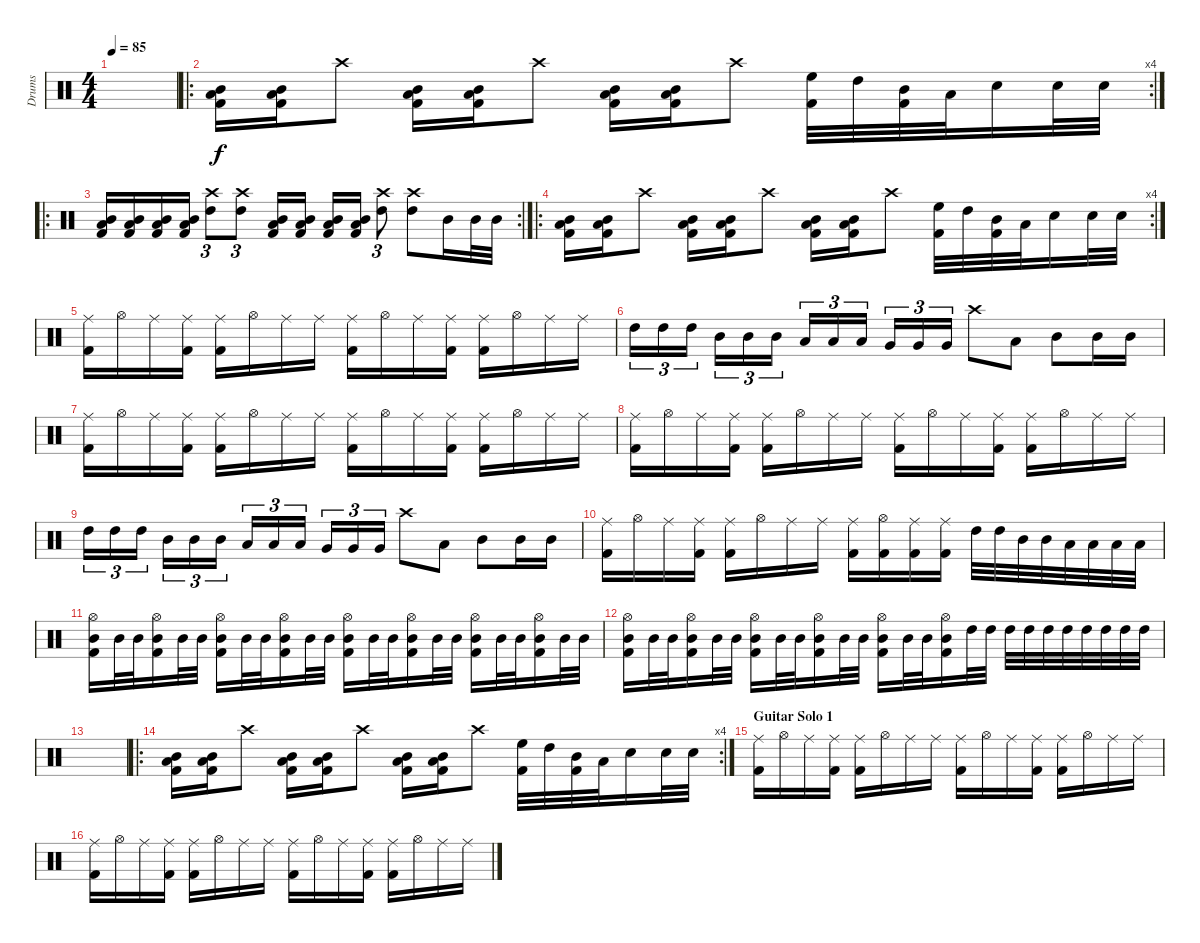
\track ("Drums" "Drums") {instrument percussion}
\staff {score}
\articulation defaults
\ts (4 4)
\tempo 85
\clef neutral
\ks c
|
\ro
\rc 4
("Low Tom (hit)" "Mid Tom (hit)" "Kick (hit) 2").16 ("Low Tom (hit)" "Mid Tom (hit)" "Kick (hit) 2").16 "Crash high (hit)".8 ("Low Tom (hit)" "Mid Tom (hit)" "Kick (hit) 2").16 ("Low Tom (hit)" "Mid Tom (hit)" "Kick (hit) 2").16 "Crash high (hit)".8 ("Low Tom (hit)" "Mid Tom (hit)" "Kick (hit) 2").16 ("Low Tom (hit)" "Mid Tom (hit)" "Kick (hit) 2").16 "Crash high (hit)".8 ("High Floor Tom (hit)" "Kick (hit) 2").32 "High Tom (hit)".32 ("Mid Tom (hit)" "Kick (hit) 2").32 "Low Tom (hit)".32 "Electric Snare (hit)".16 "Snare (hit) 2".32 "Snare (hit) 2".32 |
\ro
\rc 2
("Low Tom (hit)" "Mid Tom (hit)" "Kick (hit) 2").16 ("Low Tom (hit)" "Mid Tom (hit)" "Kick (hit) 2").16 ("Low Tom (hit)" "Mid Tom (hit)" "Kick (hit) 2").16 ("Low Tom (hit)" "Mid Tom (hit)" "Kick (hit) 2").16 ("Crash high (hit)" "High Tom (hit)").8{tu (3 2)} ("Crash high (hit)" "High Tom (hit)").8{tu (3 2)} ("Low Tom (hit)" "Mid Tom (hit)" "Kick (hit) 2").16 ("Low Tom (hit)" "Mid Tom (hit)" "Kick (hit) 2").16 ("Low Tom (hit)" "Mid Tom (hit)" "Kick (hit) 2").16 ("Low Tom (hit)" "Mid Tom (hit)" "Kick (hit) 2").16 ("Crash high (hit)" "High Tom (hit)").8{tu (3 2)} ("Crash high (hit)" "High Tom (hit)").8 "Mid Tom (hit)".16 "Mid Tom (hit)".32 "Mid Tom (hit)".32 |
\ro
\rc 4
("Low Tom (hit)" "Mid Tom (hit)" "Kick (hit) 2").16 ("Low Tom (hit)" "Mid Tom (hit)" "Kick (hit) 2").16 "Crash high (hit)".8 ("Low Tom (hit)" "Mid Tom (hit)" "Kick (hit) 2").16 ("Low Tom (hit)" "Mid Tom (hit)" "Kick (hit) 2").16 "Crash high (hit)".8 ("Low Tom (hit)" "Mid Tom (hit)" "Kick (hit) 2").16 ("Low Tom (hit)" "Mid Tom (hit)" "Kick (hit) 2").16 "Crash high (hit)".8 ("High Floor Tom (hit)" "Kick (hit) 2").32 "High Tom (hit)".32 ("Mid Tom (hit)" "Kick (hit) 2").32 "Low Tom (hit)".32 "Electric Snare (hit)".16 "Snare (hit) 2".32 "Snare (hit) 2".32 |
("Ride (middle)" "Kick (hit) 2").16 "Hi-Hat (open)".16 "Ride (middle)".16 ("Ride (middle)" "Kick (hit) 2").16 ("Ride (middle)" "Kick (hit) 2").16 "Hi-Hat (open)".16 "Ride (middle)".16 "Ride (middle)".16 ("Ride (middle)" "Kick (hit) 2").16 "Hi-Hat (open)".16 "Ride (middle)".16 ("Ride (middle)" "Kick (hit) 2").16 ("Ride (middle)" "Kick (hit) 2").16 "Hi-Hat (open)".16 "Ride (middle)".16 "Ride (middle)".16 |
"High Tom (hit)".16{tu (3 2)} "High Tom (hit)".16{tu (3 2)} "High Tom (hit)".16{tu (3 2)} "Mid Tom (hit)".16{tu (3 2)} "Mid Tom (hit)".16{tu (3 2)} "Mid Tom (hit)".16{tu (3 2)} "Low Tom (hit)".16{tu (3 2)} "Low Tom (hit)".16{tu (3 2)} "Low Tom (hit)".16{tu (3 2)} "Very Low Tom (hit)".16{tu (3 2)} "Very Low Tom (hit)".16{tu (3 2)} "Very Low Tom (hit)".16{tu (3 2)} "Crash high (hit)".8 "Low Tom (hit)".8 "Mid Tom (hit)".8 "Mid Tom (hit)".16 "Mid Tom (hit)".16 |
("Ride (middle)" "Kick (hit) 2").16 "Hi-Hat (open)".16 "Ride (middle)".16 ("Ride (middle)" "Kick (hit) 2").16 ("Ride (middle)" "Kick (hit) 2").16 "Hi-Hat (open)".16 "Ride (middle)".16 "Ride (middle)".16 ("Ride (middle)" "Kick (hit) 2").16 "Hi-Hat (open)".16 "Ride (middle)".16 ("Ride (middle)" "Kick (hit) 2").16 ("Ride (middle)" "Kick (hit) 2").16 "Hi-Hat (open)".16 "Ride (middle)".16 "Ride (middle)".16 |
("Ride (middle)" "Kick (hit) 2").16 "Hi-Hat (open)".16 "Ride (middle)".16 ("Ride (middle)" "Kick (hit) 2").16 ("Ride (middle)" "Kick (hit) 2").16 "Hi-Hat (open)".16 "Ride (middle)".16 "Ride (middle)".16 ("Ride (middle)" "Kick (hit) 2").16 "Hi-Hat (open)".16 "Ride (middle)".16 ("Ride (middle)" "Kick (hit) 2").16 ("Ride (middle)" "Kick (hit) 2").16 "Hi-Hat (open)".16 "Ride (middle)".16 "Ride (middle)".16 |
"High Tom (hit)".16{tu (3 2)} "High Tom (hit)".16{tu (3 2)} "High Tom (hit)".16{tu (3 2)} "Mid Tom (hit)".16{tu (3 2)} "Mid Tom (hit)".16{tu (3 2)} "Mid Tom (hit)".16{tu (3 2)} "Low Tom (hit)".16{tu (3 2)} "Low Tom (hit)".16{tu (3 2)} "Low Tom (hit)".16{tu (3 2)} "Very Low Tom (hit)".16{tu (3 2)} "Very Low Tom (hit)".16{tu (3 2)} "Very Low Tom (hit)".16{tu (3 2)} "Crash high (hit)".8 "Low Tom (hit)".8 "Mid Tom (hit)".8 "Mid Tom (hit)".16 "Mid Tom (hit)".16 |
("Ride (middle)" "Kick (hit) 2").16 "Hi-Hat (open)".16 "Ride (middle)".16 ("Ride (middle)" "Kick (hit) 2").16 ("Ride (middle)" "Kick (hit) 2").16 "Hi-Hat (open)".16 "Ride (middle)".16 "Ride (middle)".16 ("Ride (middle)" "Kick (hit) 2").16 ("Hi-Hat (open)" "Kick (hit) 2").16 ("Ride (middle)" "Kick (hit) 2").16 ("Ride (middle)" "Kick (hit) 2").16 "High Tom (hit)".32 "High Tom (hit)".32 "Mid Tom (hit)".32 "Mid Tom (hit)".32 "Low Tom (hit)".32 "Low Tom (hit)".32 "Low Tom (hit)".32 "Low Tom (hit)".32 |
("Hi-Hat (open)" "Mid Tom (hit)" "Kick (hit) 2").16 "Mid Tom (hit)".32 "Mid Tom (hit)".32 ("Hi-Hat (open)" "Mid Tom (hit)" "Kick (hit) 2").16 "Mid Tom (hit)".32 "Mid Tom (hit)".32 ("Hi-Hat (open)" "Mid Tom (hit)" "Kick (hit) 2").16 "Mid Tom (hit)".32 "Mid Tom (hit)".32 ("Hi-Hat (open)" "Mid Tom (hit)" "Kick (hit) 2").16 "Mid Tom (hit)".32 "Mid Tom (hit)".32 ("Hi-Hat (open)" "Mid Tom (hit)" "Kick (hit) 2").16 "Mid Tom (hit)".32 "Mid Tom (hit)".32 ("Hi-Hat (open)" "Mid Tom (hit)" "Kick (hit) 2").16 "Mid Tom (hit)".32 "Mid Tom (hit)".32 ("Hi-Hat (open)" "Mid Tom (hit)" "Kick (hit) 2").16 "Mid Tom (hit)".32 "Mid Tom (hit)".32 ("Hi-Hat (open)" "Mid Tom (hit)" "Kick (hit) 2").16 "Mid Tom (hit)".32 "Mid Tom (hit)".32 |
("Hi-Hat (open)" "Mid Tom (hit)" "Kick (hit) 2").16 "Mid Tom (hit)".32 "Mid Tom (hit)".32 ("Hi-Hat (open)" "Mid Tom (hit)" "Kick (hit) 2").16 "Mid Tom (hit)".32 "Mid Tom (hit)".32 ("Hi-Hat (open)" "Mid Tom (hit)" "Kick (hit) 2").16 "Mid Tom (hit)".32 "Mid Tom (hit)".32 ("Hi-Hat (open)" "Mid Tom (hit)" "Kick (hit) 2").16 "Mid Tom (hit)".32 "Mid Tom (hit)".32 ("Hi-Hat (open)" "Mid Tom (hit)" "Kick (hit) 2").16 "Mid Tom (hit)".32 "Mid Tom (hit)".32 ("Hi-Hat (open)" "Mid Tom (hit)" "Kick (hit) 2").16 "High Tom (hit)".32 "High Tom (hit)".32 "High Tom (hit)".32 "High Tom (hit)".32 "High Tom (hit)".32 "High Tom (hit)".32 "High Tom (hit)".32 "High Tom (hit)".32 "High Tom (hit)".32 "High Tom (hit)".32 |
|
\ro
\rc 4
("Low Tom (hit)" "Mid Tom (hit)" "Kick (hit) 2").16 ("Low Tom (hit)" "Mid Tom (hit)" "Kick (hit) 2").16 "Crash high (hit)".8 ("Low Tom (hit)" "Mid Tom (hit)" "Kick (hit) 2").16 ("Low Tom (hit)" "Mid Tom (hit)" "Kick (hit) 2").16 "Crash high (hit)".8 ("Low Tom (hit)" "Mid Tom (hit)" "Kick (hit) 2").16 ("Low Tom (hit)" "Mid Tom (hit)" "Kick (hit) 2").16 "Crash high (hit)".8 ("High Floor Tom (hit)" "Kick (hit) 2").32 "High Tom (hit)".32 ("Mid Tom (hit)" "Kick (hit) 2").32 "Low Tom (hit)".32 "Electric Snare (hit)".16 "Snare (hit) 2".32 "Snare (hit) 2".32 |
\section ("" "Guitar Solo 1")
("Ride (middle)" "Kick (hit) 2").16 "Hi-Hat (open)".16 "Ride (middle)".16 ("Ride (middle)" "Kick (hit) 2").16 ("Ride (middle)" "Kick (hit) 2").16 "Hi-Hat (open)".16 "Ride (middle)".16 "Ride (middle)".16 ("Ride (middle)" "Kick (hit) 2").16 "Hi-Hat (open)".16 "Ride (middle)".16 ("Ride (middle)" "Kick (hit) 2").16 ("Ride (middle)" "Kick (hit) 2").16 "Hi-Hat (open)".16 "Ride (middle)".16 "Ride (middle)".16 |
("Ride (middle)" "Kick (hit) 2").16 "Hi-Hat (open)".16 "Ride (middle)".16 ("Ride (middle)" "Kick (hit) 2").16 ("Ride (middle)" "Kick (hit) 2").16 "Hi-Hat (open)".16 "Ride (middle)".16 "Ride (middle)".16 ("Ride (middle)" "Kick (hit) 2").16 "Hi-Hat (open)".16 "Ride (middle)".16 ("Ride (middle)" "Kick (hit) 2").16 ("Ride (middle)" "Kick (hit) 2").16 "Hi-Hat (open)".16 "Ride (middle)".16 "Ride (middle)".16
